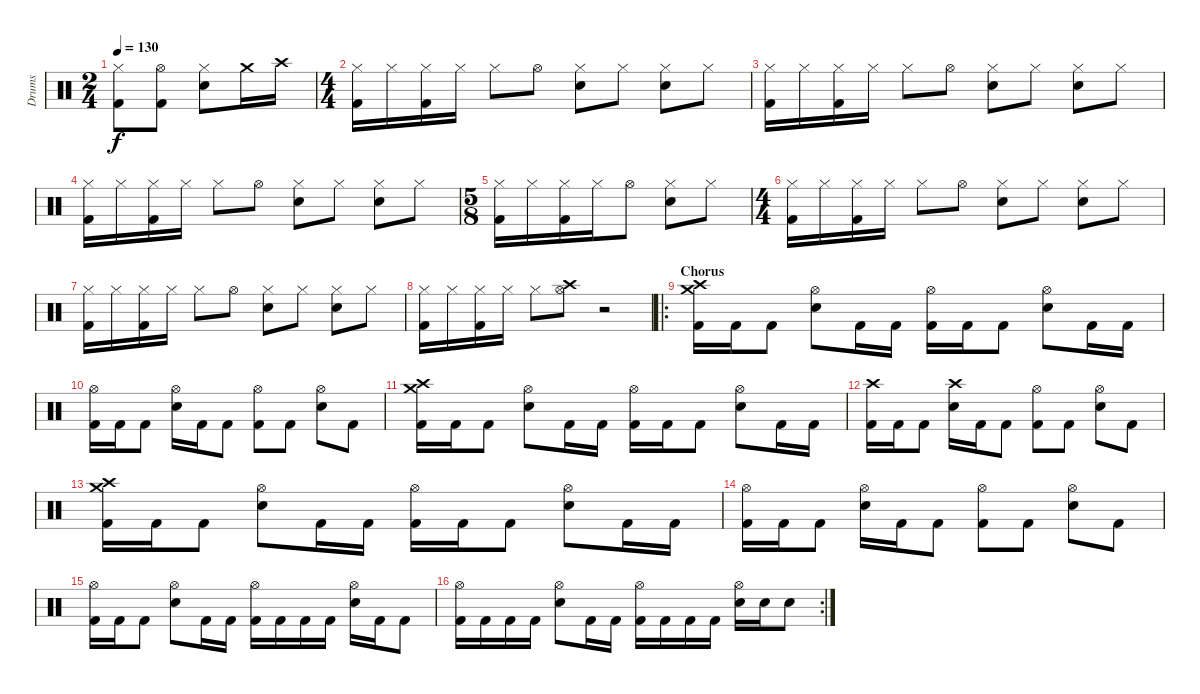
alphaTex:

\track ("Drums" "Drums") {instrument percussion}
\staff {score}
\articulation defaults
\ts (2 4)
\tempo 130
\clef neutral
\ks c
("Hi-Hat (closed)" "Kick (hit) 2").8{dy f} ("Hi-Hat (open)" "Kick (hit) 2").8 ("Hi-Hat (closed)" "Electric Snare (hit)").8 "Crash medium (hit)".16 "Crash high (hit)".16 |
\ts (4 4)
("Hi-Hat (closed)" "Kick (hit) 2").16 "Hi-Hat (closed)".16 ("Hi-Hat (closed)" "Kick (hit) 2").16 "Hi-Hat (closed)".16 "Hi-Hat (closed)".8 "Hi-Hat (open)".8 ("Hi-Hat (closed)" "Electric Snare (hit)").8 "Hi-Hat (closed)".8 ("Hi-Hat (closed)" "Electric Snare (hit)").8 "Hi-Hat (closed)".8 |
("Hi-Hat (closed)" "Kick (hit) 2").16 "Hi-Hat (closed)".16 ("Hi-Hat (closed)" "Kick (hit) 2").16 "Hi-Hat (closed)".16 "Hi-Hat (closed)".8 "Hi-Hat (open)".8 ("Hi-Hat (closed)" "Electric Snare (hit)").8 "Hi-Hat (closed)".8 ("Hi-Hat (closed)" "Electric Snare (hit)").8 "Hi-Hat (closed)".8 |
("Hi-Hat (closed)" "Kick (hit) 2").16 "Hi-Hat (closed)".16 ("Hi-Hat (closed)" "Kick (hit) 2").16 "Hi-Hat (closed)".16 "Hi-Hat (closed)".8 "Hi-Hat (open)".8 ("Hi-Hat (closed)" "Electric Snare (hit)").8 "Hi-Hat (closed)".8 ("Hi-Hat (closed)" "Electric Snare (hit)").8 "Hi-Hat (closed)".8 |
\ts (5 8)
("Hi-Hat (closed)" "Kick (hit) 2").16 "Hi-Hat (closed)".16 ("Hi-Hat (closed)" "Kick (hit) 2").16 "Hi-Hat (closed)".16 "Hi-Hat (open)".8 ("Hi-Hat (closed)" "Electric Snare (hit)").8 "Hi-Hat (closed)".8 |
\ts (4 4)
("Hi-Hat (closed)" "Kick (hit) 2").16 "Hi-Hat (closed)".16 ("Hi-Hat (closed)" "Kick (hit) 2").16 "Hi-Hat (closed)".16 "Hi-Hat (closed)".8 "Hi-Hat (open)".8 ("Hi-Hat (closed)" "Electric Snare (hit)").8 "Hi-Hat (closed)".8 ("Hi-Hat (closed)" "Electric Snare (hit)").8 "Hi-Hat (closed)".8 |
("Hi-Hat (closed)" "Kick (hit) 2").16 "Hi-Hat (closed)".16 ("Hi-Hat (closed)" "Kick (hit) 2").16 "Hi-Hat (closed)".16 "Hi-Hat (closed)".8 "Hi-Hat (open)".8 ("Hi-Hat (closed)" "Electric Snare (hit)").8 "Hi-Hat (closed)".8 ("Hi-Hat (closed)" "Electric Snare (hit)").8 "Hi-Hat (closed)".8 |
("Hi-Hat (closed)" "Kick (hit) 2").16 "Hi-Hat (closed)".16 ("Hi-Hat (closed)" "Kick (hit) 2").16 "Hi-Hat (closed)".16 "Hi-Hat (closed)".8 ("Crash high (hit)" "Hi-Hat (open)").8 r.2 |
\ro
\section ("" "Chorus")
("Crash high (hit)" "Crash medium (hit)" "Kick (hit) 2").16 "Kick (hit) 2".16 "Kick (hit) 2".8 ("Hi-Hat (open)" "Electric Snare (hit)").8 "Kick (hit) 2".16 "Kick (hit) 2".16 ("Hi-Hat (open)" "Kick (hit) 2").16 "Kick (hit) 2".16 "Kick (hit) 2".8 ("Hi-Hat (open)" "Electric Snare (hit)").8 "Kick (hit) 2".16 "Kick (hit) 2".16 |
("Hi-Hat (open)" "Kick (hit) 2").16 "Kick (hit) 2".16 "Kick (hit) 2".8 ("Hi-Hat (open)" "Electric Snare (hit)").16 "Kick (hit) 2".16 "Kick (hit) 2".8 ("Hi-Hat (open)" "Kick (hit) 2").8 "Kick (hit) 2".8 ("Hi-Hat (open)" "Electric Snare (hit)").8 "Kick (hit) 2".8 |
("Crash high (hit)" "Crash medium (hit)" "Kick (hit) 2").16 "Kick (hit) 2".16 "Kick (hit) 2".8 ("Hi-Hat (open)" "Electric Snare (hit)").8 "Kick (hit) 2".16 "Kick (hit) 2".16 ("Hi-Hat (open)" "Kick (hit) 2").16 "Kick (hit) 2".16 "Kick (hit) 2".8 ("Hi-Hat (open)" "Electric Snare (hit)").8 "Kick (hit) 2".16 "Kick (hit) 2".16 |
("Crash high (hit)" "Kick (hit) 2").16 "Kick (hit) 2".16 "Kick (hit) 2".8 ("Crash high (hit)" "Electric Snare (hit)").16 "Kick (hit) 2".16 "Kick (hit) 2".8 ("Hi-Hat (open)" "Kick (hit) 2").8 "Kick (hit) 2".8 ("Hi-Hat (open)" "Electric Snare (hit)").8 "Kick (hit) 2".8 |
("Crash high (hit)" "Crash medium (hit)" "Kick (hit) 2").16 "Kick (hit) 2".16 "Kick (hit) 2".8 ("Hi-Hat (open)" "Electric Snare (hit)").8 "Kick (hit) 2".16 "Kick (hit) 2".16 ("Hi-Hat (open)" "Kick (hit) 2").16 "Kick (hit) 2".16 "Kick (hit) 2".8 ("Hi-Hat (open)" "Electric Snare (hit)").8 "Kick (hit) 2".16 "Kick (hit) 2".16 |
("Hi-Hat (open)" "Kick (hit) 2").16 "Kick (hit) 2".16 "Kick (hit) 2".8 ("Hi-Hat (open)" "Electric Snare (hit)").16 "Kick (hit) 2".16 "Kick (hit) 2".8 ("Hi-Hat (open)" "Kick (hit) 2").8 "Kick (hit) 2".8 ("Hi-Hat (open)" "Electric Snare (hit)").8 "Kick (hit) 2".8 |
("Hi-Hat (open)" "Kick (hit) 2").16 "Kick (hit) 2".16 "Kick (hit) 2".8 ("Hi-Hat (open)" "Electric Snare (hit)").8 "Kick (hit) 2".16 "Kick (hit) 2".16 ("Hi-Hat (open)" "Kick (hit) 2").16 "Kick (hit) 2".16 "Kick (hit) 2".16 "Kick (hit) 2".16 ("Hi-Hat (open)" "Electric Snare (hit)").16 "Kick (hit) 2".16 "Kick (hit) 2".8 |
\rc 2
("Hi-Hat (open)" "Kick (hit) 2").16 "Kick (hit) 2".16 "Kick (hit) 2".16 "Kick (hit) 2".16 ("Hi-Hat (open)" "Electric Snare (hit)").8 "Kick (hit) 2".16 "Kick (hit) 2".16 ("Hi-Hat (open)" "Kick (hit) 2").16 "Kick (hit) 2".16 "Kick (hit) 2".16 "Kick (hit) 2".16 ("Hi-Hat (open)" "Electric Snare (hit)").16 "Electric Snare (hit)".16 "Electric Snare (hit)".8
